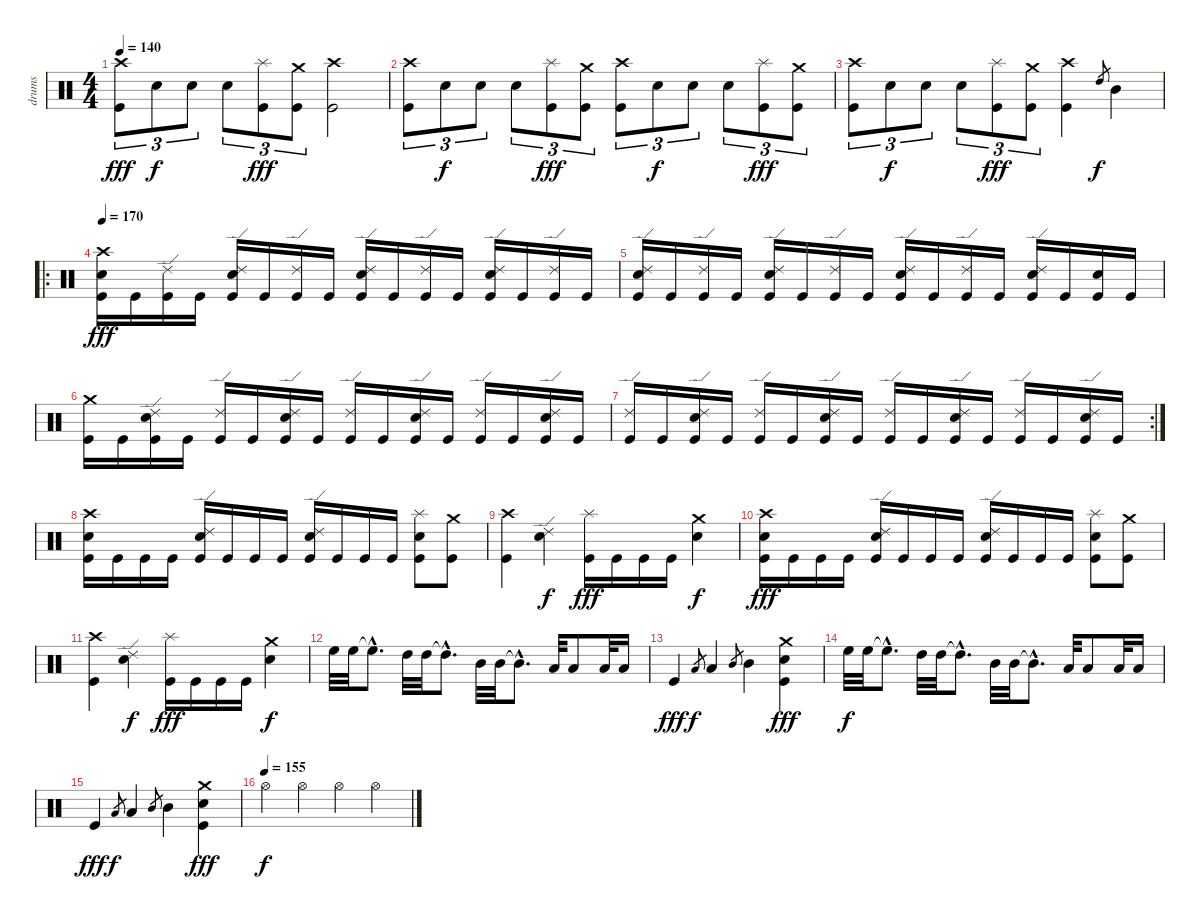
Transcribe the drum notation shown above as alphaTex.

\track ("drums" "drums") {instrument percussion}
\staff {score}
\articulation defaults
\ts (4 4)
\tempo 140
\clef neutral
\ks c
("Crash high (hit)" "Kick (hit)").8{tu (3 2) dy fff} "Snare (hit) 2".8{tu (3 2) dy f} "Snare (hit) 2".8{tu (3 2)} "Snare (hit) 2".8{tu (3 2)} ("Splash (hit)" "Kick (hit)").8{tu (3 2) dy fff} ("Crash medium (hit)" "Kick (hit)").8{tu (3 2)} ("Crash high (hit)" "Kick (hit)").2 |
("Crash high (hit)" "Kick (hit)").8{tu (3 2)} "Snare (hit) 2".8{tu (3 2) dy f} "Snare (hit) 2".8{tu (3 2)} "Snare (hit) 2".8{tu (3 2)} ("Splash (hit)" "Kick (hit)").8{tu (3 2) dy fff} ("Crash medium (hit)" "Kick (hit)").8{tu (3 2)} ("Crash high (hit)" "Kick (hit)").8{tu (3 2)} "Snare (hit) 2".8{tu (3 2) dy f} "Snare (hit) 2".8{tu (3 2)} "Snare (hit) 2".8{tu (3 2)} ("Splash (hit)" "Kick (hit)").8{tu (3 2) dy fff} ("Crash medium (hit)" "Kick (hit)").8{tu (3 2)} |
("Crash high (hit)" "Kick (hit)").8{tu (3 2)} "Snare (hit) 2".8{tu (3 2) dy f} "Snare (hit) 2".8{tu (3 2)} "Snare (hit) 2".8{tu (3 2)} ("Splash (hit)" "Kick (hit)").8{tu (3 2) dy fff} ("Crash medium (hit)" "Kick (hit)").8{tu (3 2)} ("Crash high (hit)" "Kick (hit)").4 "High Tom (hit)".8{gr dy f} "Mid Tom (hit)".4 |
\ro
\tempo 170
("Crash high (hit)" "Snare (hit) 2" "Kick (hit)").16{dy fff} "Kick (hit)".16 ("Ride (edge) 2" "Kick (hit)").16 "Kick (hit)".16 ("Ride (edge) 2" "Snare (hit) 2" "Kick (hit)").16 "Kick (hit)".16 ("Ride (edge) 2" "Kick (hit)").16 "Kick (hit)".16 ("Ride (edge) 2" "Snare (hit) 2" "Kick (hit)").16 "Kick (hit)".16 ("Ride (edge) 2" "Kick (hit)").16 "Kick (hit)".16 ("Ride (edge) 2" "Snare (hit) 2" "Kick (hit)").16 "Kick (hit)".16 ("Ride (edge) 2" "Kick (hit)").16 "Kick (hit)".16 |
("Ride (edge) 2" "Snare (hit) 2" "Kick (hit)").16 "Kick (hit)".16 ("Ride (edge) 2" "Kick (hit)").16 "Kick (hit)".16 ("Ride (edge) 2" "Snare (hit) 2" "Kick (hit)").16 "Kick (hit)".16 ("Ride (edge) 2" "Kick (hit)").16 "Kick (hit)".16 ("Ride (edge) 2" "Snare (hit) 2" "Kick (hit)").16 "Kick (hit)".16 ("Ride (edge) 2" "Kick (hit)").16 "Kick (hit)".16 ("Ride (edge) 2" "Snare (hit) 2" "Kick (hit)").16 "Kick (hit)".16 ("Snare (hit) 2" "Kick (hit)").16 "Kick (hit)".16 |
("Crash medium (hit)" "Kick (hit)").16 "Kick (hit)".16 ("Ride (edge) 2" "Snare (hit) 2" "Kick (hit)").16 "Kick (hit)".16 ("Ride (edge) 2" "Kick (hit)").16 "Kick (hit)".16 ("Ride (edge) 2" "Snare (hit) 2" "Kick (hit)").16 "Kick (hit)".16 ("Ride (edge) 2" "Kick (hit)").16 "Kick (hit)".16 ("Ride (edge) 2" "Snare (hit) 2" "Kick (hit)").16 "Kick (hit)".16 ("Ride (edge) 2" "Kick (hit)").16 "Kick (hit)".16 ("Ride (edge) 2" "Snare (hit) 2" "Kick (hit)").16 "Kick (hit)".16 |
\rc 2
("Ride (edge) 2" "Kick (hit)").16 "Kick (hit)".16 ("Ride (edge) 2" "Snare (hit) 2" "Kick (hit)").16 "Kick (hit)".16 ("Ride (edge) 2" "Kick (hit)").16 "Kick (hit)".16 ("Ride (edge) 2" "Snare (hit) 2" "Kick (hit)").16 "Kick (hit)".16 ("Ride (edge) 2" "Kick (hit)").16 "Kick (hit)".16 ("Ride (edge) 2" "Snare (hit) 2" "Kick (hit)").16 "Kick (hit)".16 ("Ride (edge) 2" "Kick (hit)").16 "Kick (hit)".16 ("Ride (edge) 2" "Snare (hit) 2" "Kick (hit)").16 "Kick (hit)".16 |
("Crash high (hit)" "Snare (hit) 2" "Kick (hit)").16 "Kick (hit)".16 "Kick (hit)".16 "Kick (hit)".16 ("Ride (edge) 2" "Snare (hit) 2" "Kick (hit)").16 "Kick (hit)".16 "Kick (hit)".16 "Kick (hit)".16 ("Ride (edge) 2" "Snare (hit) 2" "Kick (hit)").16 "Kick (hit)".16 "Kick (hit)".16 "Kick (hit)".16 ("Splash (hit)" "Snare (hit) 2" "Kick (hit)").8 ("Crash medium (hit)" "Kick (hit)").8 |
("Crash high (hit)" "Kick (hit)").4 ("Ride (edge) 2" "Snare (hit) 2").4{dy f} ("Splash (hit)" "Kick (hit)").16{dy fff} "Kick (hit)".16 "Kick (hit)".16 "Kick (hit)".16 ("Crash medium (hit)" "Snare (hit) 2").4{dy f} |
("Crash high (hit)" "Snare (hit) 2" "Kick (hit)").16{dy fff} "Kick (hit)".16 "Kick (hit)".16 "Kick (hit)".16 ("Ride (edge) 2" "Snare (hit) 2" "Kick (hit)").16 "Kick (hit)".16 "Kick (hit)".16 "Kick (hit)".16 ("Ride (edge) 2" "Snare (hit) 2" "Kick (hit)").16 "Kick (hit)".16 "Kick (hit)".16 "Kick (hit)".16 ("Splash (hit)" "Snare (hit) 2" "Kick (hit)").8 ("Crash medium (hit)" "Kick (hit)").8 |
("Crash high (hit)" "Kick (hit)").4 ("Ride (edge) 2" "Snare (hit) 2").4{dy f} ("Splash (hit)" "Kick (hit)").16{dy fff} "Kick (hit)".16 "Kick (hit)".16 "Kick (hit)".16 ("Crash medium (hit)" "Snare (hit) 2").4{dy f} |
"High Floor Tom (hit)".32 "High Floor Tom (hit)".32 "High Floor Tom (hit)"{hac t}.8{d} "High Tom (hit)".32 "High Tom (hit)".32 "High Tom (hit)"{hac t}.8{d} "Mid Tom (hit)".32 "Mid Tom (hit)".32 "Mid Tom (hit)"{hac t}.8{d} "Low Tom (hit)".32 "Low Tom (hit)".8 "Low Tom (hit)".32 "Low Tom (hit)".16 |
"Kick (hit)".4{dy fff} "Low Tom (hit)".8{gr dy f} "Low Tom (hit)".4 "Mid Tom (hit)".8{gr} "Mid Tom (hit)".4 ("Crash medium (hit)" "Snare (hit) 2" "Kick (hit)").4{dy fff} |
"High Floor Tom (hit)".32{dy f} "High Floor Tom (hit)".32 "High Floor Tom (hit)"{hac t}.8{d} "High Tom (hit)".32 "High Tom (hit)".32 "High Tom (hit)"{hac t}.8{d} "Mid Tom (hit)".32 "Mid Tom (hit)".32 "Mid Tom (hit)"{hac t}.8{d} "Low Tom (hit)".32 "Low Tom (hit)".8 "Low Tom (hit)".32 "Low Tom (hit)".16 |
"Kick (hit)".4{dy fff} "Low Tom (hit)".8{gr dy f} "Low Tom (hit)".4 "Mid Tom (hit)".8{gr} "Mid Tom (hit)".4 ("Crash medium (hit)" "Snare (hit) 2" "Kick (hit)").4{dy fff} |
\tempo (155)
"Hi-Hat (open)".4{dy f} "Hi-Hat (open)".4 "Hi-Hat (open)".4 "Hi-Hat (open)".4
